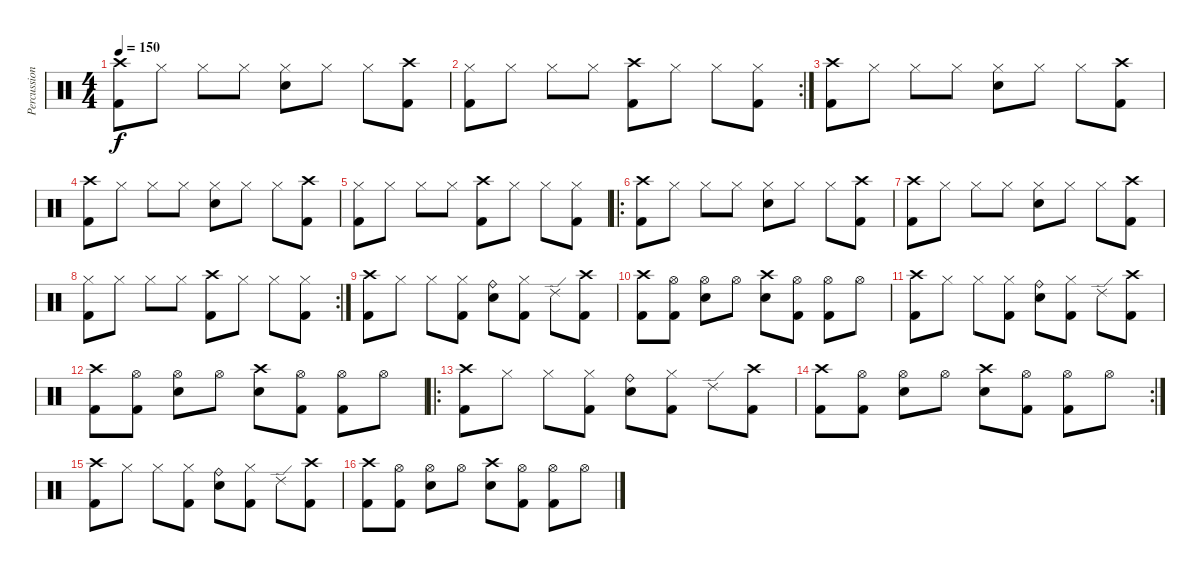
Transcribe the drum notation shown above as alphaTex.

\track ("Percussion" "Percussion") {instrument percussion}
\staff {score}
\articulation defaults
\ts (4 4)
\tempo 150
\clef neutral
\ks c
("Crash high (hit)" "Kick (hit) 2").8{dy f} "Hi-Hat (closed)".8 "Hi-Hat (closed)".8 "Hi-Hat (closed)".8 ("Hi-Hat (closed)" "Snare (hit) 2").8 "Hi-Hat (closed)".8 "Hi-Hat (closed)".8 ("Crash high (hit)" "Kick (hit) 2").8 |
\rc 2
("Hi-Hat (closed)" "Kick (hit) 2").8 "Hi-Hat (closed)".8 "Hi-Hat (closed)".8 "Hi-Hat (closed)".8 ("Crash high (hit)" "Kick (hit) 2").8 "Hi-Hat (closed)".8 "Hi-Hat (closed)".8 ("Hi-Hat (closed)" "Kick (hit) 2").8 |
("Crash high (hit)" "Kick (hit) 2").8 "Hi-Hat (closed)".8 "Hi-Hat (closed)".8 "Hi-Hat (closed)".8 ("Hi-Hat (closed)" "Snare (hit) 2").8 "Hi-Hat (closed)".8 "Hi-Hat (closed)".8 ("Crash high (hit)" "Kick (hit) 2").8 |
("Crash high (hit)" "Kick (hit) 2").8 "Hi-Hat (closed)".8 "Hi-Hat (closed)".8 "Hi-Hat (closed)".8 ("Hi-Hat (closed)" "Snare (hit) 2").8 "Hi-Hat (closed)".8 "Hi-Hat (closed)".8 ("Crash high (hit)" "Kick (hit) 2").8 |
("Hi-Hat (closed)" "Kick (hit) 2").8 "Hi-Hat (closed)".8 "Hi-Hat (closed)".8 "Hi-Hat (closed)".8 ("Crash high (hit)" "Kick (hit) 2").8 "Hi-Hat (closed)".8 "Hi-Hat (closed)".8 ("Hi-Hat (closed)" "Kick (hit) 2").8 |
\ro
("Crash high (hit)" "Kick (hit) 2").8 "Hi-Hat (closed)".8 "Hi-Hat (closed)".8 "Hi-Hat (closed)".8 ("Hi-Hat (closed)" "Snare (hit) 2").8 "Hi-Hat (closed)".8 "Hi-Hat (closed)".8 ("Crash high (hit)" "Kick (hit) 2").8 |
("Crash high (hit)" "Kick (hit) 2").8 "Hi-Hat (closed)".8 "Hi-Hat (closed)".8 "Hi-Hat (closed)".8 ("Hi-Hat (closed)" "Snare (hit) 2").8 "Hi-Hat (closed)".8 "Hi-Hat (closed)".8 ("Crash high (hit)" "Kick (hit) 2").8 |
\rc 2
("Hi-Hat (closed)" "Kick (hit) 2").8 "Hi-Hat (closed)".8 "Hi-Hat (closed)".8 "Hi-Hat (closed)".8 ("Crash high (hit)" "Kick (hit) 2").8 "Hi-Hat (closed)".8 "Hi-Hat (closed)".8 ("Hi-Hat (closed)" "Kick (hit) 2").8 |
("Crash high (hit)" "Kick (hit) 2").8 "Hi-Hat (closed)".8 "Hi-Hat (closed)".8 ("Hi-Hat (closed)" "Kick (hit) 2").8 ("Ride (bell)" "Snare (hit) 2").8 ("Hi-Hat (closed)" "Kick (hit) 2").8 "Ride (edge) 2".8 ("Crash high (hit)" "Kick (hit) 2").8 |
("Crash high (hit)" "Kick (hit) 2").8 ("Hi-Hat (open)" "Kick (hit) 2").8 ("Hi-Hat (open)" "Snare (hit) 2").8 "Hi-Hat (open)".8 ("Crash high (hit)" "Snare (hit) 2").8 ("Hi-Hat (open)" "Kick (hit) 2").8 ("Hi-Hat (open)" "Kick (hit) 2").8 "Hi-Hat (open)".8 |
("Crash high (hit)" "Kick (hit) 2").8 "Hi-Hat (closed)".8 "Hi-Hat (closed)".8 ("Hi-Hat (closed)" "Kick (hit) 2").8 ("Ride (bell)" "Snare (hit) 2").8 ("Hi-Hat (closed)" "Kick (hit) 2").8 "Ride (edge) 2".8 ("Crash high (hit)" "Kick (hit) 2").8 |
("Crash high (hit)" "Kick (hit) 2").8 ("Hi-Hat (open)" "Kick (hit) 2").8 ("Hi-Hat (open)" "Snare (hit) 2").8 "Hi-Hat (open)".8 ("Crash high (hit)" "Snare (hit) 2").8 ("Hi-Hat (open)" "Kick (hit) 2").8 ("Hi-Hat (open)" "Kick (hit) 2").8 "Hi-Hat (open)".8 |
\ro
("Crash high (hit)" "Kick (hit) 2").8 "Hi-Hat (closed)".8 "Hi-Hat (closed)".8 ("Hi-Hat (closed)" "Kick (hit) 2").8 ("Ride (bell)" "Snare (hit) 2").8 ("Hi-Hat (closed)" "Kick (hit) 2").8 "Ride (edge) 2".8 ("Crash high (hit)" "Kick (hit) 2").8 |
\rc 2
("Crash high (hit)" "Kick (hit) 2").8 ("Hi-Hat (open)" "Kick (hit) 2").8 ("Hi-Hat (open)" "Snare (hit) 2").8 "Hi-Hat (open)".8 ("Crash high (hit)" "Snare (hit) 2").8 ("Hi-Hat (open)" "Kick (hit) 2").8 ("Hi-Hat (open)" "Kick (hit) 2").8 "Hi-Hat (open)".8 |
("Crash high (hit)" "Kick (hit) 2").8 "Hi-Hat (closed)".8 "Hi-Hat (closed)".8 ("Hi-Hat (closed)" "Kick (hit) 2").8 ("Ride (bell)" "Snare (hit) 2").8 ("Hi-Hat (closed)" "Kick (hit) 2").8 "Ride (edge) 2".8 ("Crash high (hit)" "Kick (hit) 2").8 |
("Crash high (hit)" "Kick (hit) 2").8 ("Hi-Hat (open)" "Kick (hit) 2").8 ("Hi-Hat (open)" "Snare (hit) 2").8 "Hi-Hat (open)".8 ("Crash high (hit)" "Snare (hit) 2").8 ("Hi-Hat (open)" "Kick (hit) 2").8 ("Hi-Hat (open)" "Kick (hit) 2").8 "Hi-Hat (open)".8
